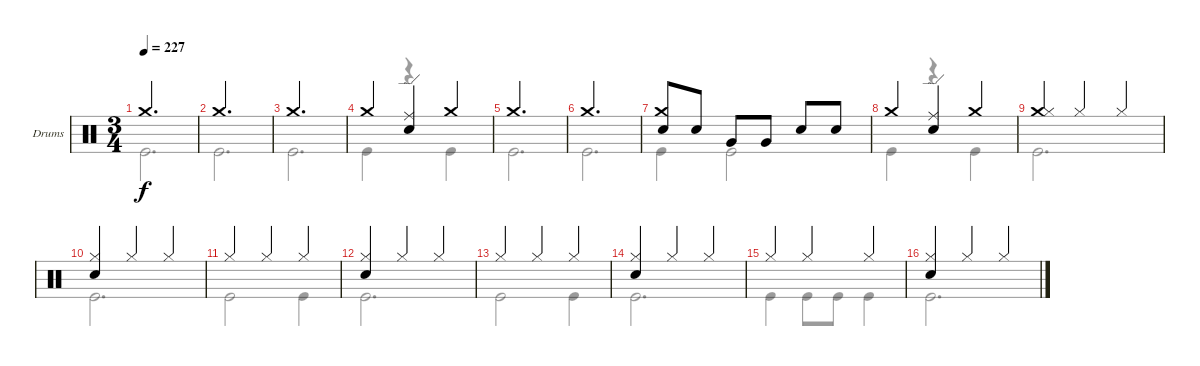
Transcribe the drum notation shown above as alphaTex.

\bracketExtendMode groupsimilarinstruments
\firstSystemTrackNameOrientation horizontal
\otherSystemsTrackNameOrientation horizontal
\track ("Drumkit" "Drums") {instrument percussion}
\staff {score}
\articulation defaults
\voice
\ts (3 4)
\tempo 227
\clef neutral
\ks c "Crash medium (hit)".2{d dy f}
|
"Crash medium (hit)".2{d} |
"Crash medium (hit)".2{d} |
"Crash medium (hit)".4 ("Ride (edge)" "Snare (hit) 2").4 "Crash medium (hit)".4 |
"Crash medium (hit)".2{d} |
"Crash medium (hit)".2{d} |
("Crash medium (hit)" "Snare (hit) 2").8 "Snare (hit) 2".8 "Very Low Tom (hit)".8 "Very Low Tom (hit)".8 "Snare (hit) 2".8 "Snare (hit) 2".8 |
"Crash medium (hit)".4 ("Ride (edge)" "Snare (hit) 2").4 "Crash medium (hit)".4 |
("Crash medium (hit)" "Hi-Hat (closed)").4 "Hi-Hat (closed)".4 "Hi-Hat (closed)".4 |
("Snare (hit) 2" "Hi-Hat (closed)").4 "Hi-Hat (closed)".4 "Hi-Hat (closed)".4 |
"Hi-Hat (closed)".4 "Hi-Hat (closed)".4 "Hi-Hat (closed)".4 |
("Snare (hit) 2" "Hi-Hat (closed)").4 "Hi-Hat (closed)".4 "Hi-Hat (closed)".4 |
"Hi-Hat (closed)".4 "Hi-Hat (closed)".4 "Hi-Hat (closed)".4 |
("Snare (hit) 2" "Hi-Hat (closed)").4 "Hi-Hat (closed)".4 "Hi-Hat (closed)".4 |
"Hi-Hat (closed)".4 "Hi-Hat (closed)".4 "Hi-Hat (closed)".4 |
("Snare (hit) 2" "Hi-Hat (closed)").4 "Hi-Hat (closed)".4 "Hi-Hat (closed)".4
\voice
\clef neutral
\ottava regular
\simile none
\ks c "Kick (hit)".2{d dy f}
|
"Kick (hit)".2{d} |
"Kick (hit)".2{d} |
"Kick (hit)".4 r.4 "Kick (hit)".4 |
"Kick (hit)".2{d} |
"Kick (hit)".2{d} |
"Kick (hit)".4 "Kick (hit)".2 |
"Kick (hit)".4 r.4 "Kick (hit)".4 |
"Kick (hit)".2{d} |
"Kick (hit)".2{d} |
"Kick (hit)".2 "Kick (hit)".4 |
"Kick (hit)".2{d} |
"Kick (hit)".2 "Kick (hit)".4 |
"Kick (hit)".2{d} |
"Kick (hit)".4 "Kick (hit)".8 "Kick (hit)".8 "Kick (hit)".4 |
"Kick (hit)".2{d}
